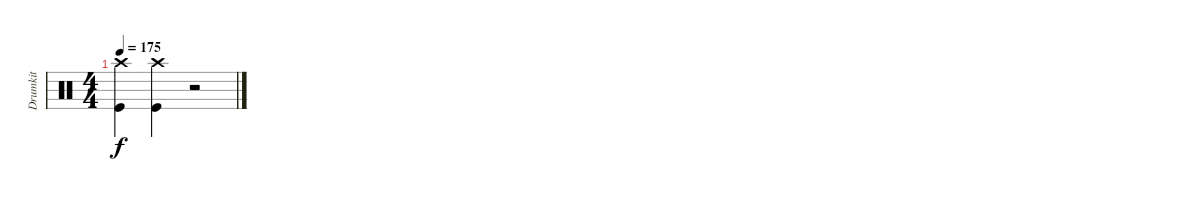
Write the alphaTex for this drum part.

\track ("Drumkit" "Drumkit") {instrument percussion}
\staff {score}
\articulation defaults
\ts (4 4)
\tempo 175
\clef neutral
\ks c
("Crash high (hit)" "Kick (hit)").4{dy f} ("Crash high (hit)" "Kick (hit)").4 r.2
